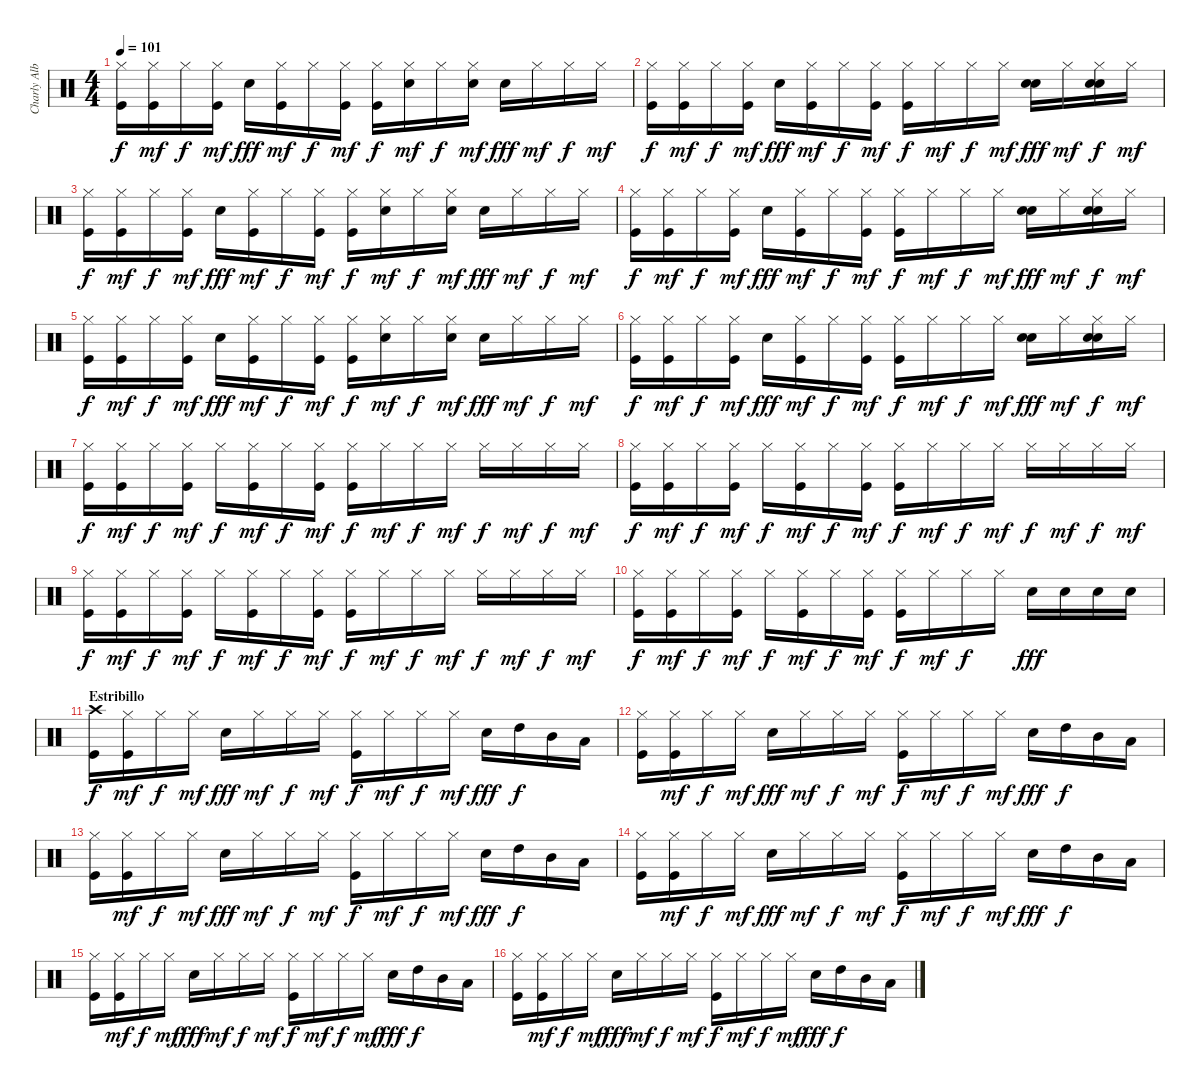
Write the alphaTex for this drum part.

\track ("Charly Alberti" "Charly Alb") {instrument percussion}
\staff {score}
\articulation defaults
\ts (4 4)
\tempo 101
\clef neutral
\ks c
("Kick (hit)" "Hi-Hat (closed)").16{dy f} ("Kick (hit)" "Hi-Hat (closed)").16{dy mf} "Hi-Hat (closed)".16{dy f} ("Kick (hit)" "Hi-Hat (closed)").16{dy mf} "Snare (hit) 2".16{dy fff} ("Kick (hit)" "Hi-Hat (closed)").16{dy mf} "Hi-Hat (closed)".16{dy f} ("Kick (hit)" "Hi-Hat (closed)").16{dy mf} ("Kick (hit)" "Hi-Hat (closed)").16{dy f} ("Hand Clap (hit)" "Hi-Hat (closed)").16{dy mf} "Hi-Hat (closed)".16{dy f} ("Hand Clap (hit)" "Hi-Hat (closed)").16{dy mf} "Snare (hit) 2".16{dy fff} "Hi-Hat (closed)".16{dy mf} "Hi-Hat (closed)".16{dy f} "Hi-Hat (closed)".16{dy mf} |
("Kick (hit)" "Hi-Hat (closed)").16{dy f} ("Kick (hit)" "Hi-Hat (closed)").16{dy mf} "Hi-Hat (closed)".16{dy f} ("Kick (hit)" "Hi-Hat (closed)").16{dy mf} "Snare (hit) 2".16{dy fff} ("Kick (hit)" "Hi-Hat (closed)").16{dy mf} "Hi-Hat (closed)".16{dy f} ("Kick (hit)" "Hi-Hat (closed)").16{dy mf} ("Kick (hit)" "Hi-Hat (closed)").16{dy f} "Hi-Hat (closed)".16{dy mf} "Hi-Hat (closed)".16{dy f} "Hi-Hat (closed)".16{dy mf} ("Snare (hit) 2" "Hand Clap (hit)").16{dy fff} "Hi-Hat (closed)".16{dy mf} ("Snare (hit) 2" "Hand Clap (hit)" "Hi-Hat (closed)").16{dy f} "Hi-Hat (closed)".16{dy mf} |
("Kick (hit)" "Hi-Hat (closed)").16{dy f} ("Kick (hit)" "Hi-Hat (closed)").16{dy mf} "Hi-Hat (closed)".16{dy f} ("Kick (hit)" "Hi-Hat (closed)").16{dy mf} "Snare (hit) 2".16{dy fff} ("Kick (hit)" "Hi-Hat (closed)").16{dy mf} "Hi-Hat (closed)".16{dy f} ("Kick (hit)" "Hi-Hat (closed)").16{dy mf} ("Kick (hit)" "Hi-Hat (closed)").16{dy f} ("Hand Clap (hit)" "Hi-Hat (closed)").16{dy mf} "Hi-Hat (closed)".16{dy f} ("Hand Clap (hit)" "Hi-Hat (closed)").16{dy mf} "Snare (hit) 2".16{dy fff} "Hi-Hat (closed)".16{dy mf} "Hi-Hat (closed)".16{dy f} "Hi-Hat (closed)".16{dy mf} |
("Kick (hit)" "Hi-Hat (closed)").16{dy f} ("Kick (hit)" "Hi-Hat (closed)").16{dy mf} "Hi-Hat (closed)".16{dy f} ("Kick (hit)" "Hi-Hat (closed)").16{dy mf} "Snare (hit) 2".16{dy fff} ("Kick (hit)" "Hi-Hat (closed)").16{dy mf} "Hi-Hat (closed)".16{dy f} ("Kick (hit)" "Hi-Hat (closed)").16{dy mf} ("Kick (hit)" "Hi-Hat (closed)").16{dy f} "Hi-Hat (closed)".16{dy mf} "Hi-Hat (closed)".16{dy f} "Hi-Hat (closed)".16{dy mf} ("Snare (hit) 2" "Hand Clap (hit)").16{dy fff} "Hi-Hat (closed)".16{dy mf} ("Snare (hit) 2" "Hand Clap (hit)" "Hi-Hat (closed)").16{dy f} "Hi-Hat (closed)".16{dy mf} |
("Kick (hit)" "Hi-Hat (closed)").16{dy f} ("Kick (hit)" "Hi-Hat (closed)").16{dy mf} "Hi-Hat (closed)".16{dy f} ("Kick (hit)" "Hi-Hat (closed)").16{dy mf} "Snare (hit) 2".16{dy fff} ("Kick (hit)" "Hi-Hat (closed)").16{dy mf} "Hi-Hat (closed)".16{dy f} ("Kick (hit)" "Hi-Hat (closed)").16{dy mf} ("Kick (hit)" "Hi-Hat (closed)").16{dy f} ("Hand Clap (hit)" "Hi-Hat (closed)").16{dy mf} "Hi-Hat (closed)".16{dy f} ("Hand Clap (hit)" "Hi-Hat (closed)").16{dy mf} "Snare (hit) 2".16{dy fff} "Hi-Hat (closed)".16{dy mf} "Hi-Hat (closed)".16{dy f} "Hi-Hat (closed)".16{dy mf} |
("Kick (hit)" "Hi-Hat (closed)").16{dy f} ("Kick (hit)" "Hi-Hat (closed)").16{dy mf} "Hi-Hat (closed)".16{dy f} ("Kick (hit)" "Hi-Hat (closed)").16{dy mf} "Snare (hit) 2".16{dy fff} ("Kick (hit)" "Hi-Hat (closed)").16{dy mf} "Hi-Hat (closed)".16{dy f} ("Kick (hit)" "Hi-Hat (closed)").16{dy mf} ("Kick (hit)" "Hi-Hat (closed)").16{dy f} "Hi-Hat (closed)".16{dy mf} "Hi-Hat (closed)".16{dy f} "Hi-Hat (closed)".16{dy mf} ("Snare (hit) 2" "Hand Clap (hit)").16{dy fff} "Hi-Hat (closed)".16{dy mf} ("Snare (hit) 2" "Hand Clap (hit)" "Hi-Hat (closed)").16{dy f} "Hi-Hat (closed)".16{dy mf} |
("Kick (hit)" "Hi-Hat (closed)").16{dy f} ("Kick (hit)" "Hi-Hat (closed)").16{dy mf} "Hi-Hat (closed)".16{dy f} ("Kick (hit)" "Hi-Hat (closed)").16{dy mf} "Hi-Hat (closed)".16{dy f} ("Kick (hit)" "Hi-Hat (closed)").16{dy mf} "Hi-Hat (closed)".16{dy f} ("Kick (hit)" "Hi-Hat (closed)").16{dy mf} ("Kick (hit)" "Hi-Hat (closed)").16{dy f} "Hi-Hat (closed)".16{dy mf} "Hi-Hat (closed)".16{dy f} "Hi-Hat (closed)".16{dy mf} "Hi-Hat (closed)".16{dy f} "Hi-Hat (closed)".16{dy mf} "Hi-Hat (closed)".16{dy f} "Hi-Hat (closed)".16{dy mf} |
("Kick (hit)" "Hi-Hat (closed)").16{dy f} ("Kick (hit)" "Hi-Hat (closed)").16{dy mf} "Hi-Hat (closed)".16{dy f} ("Kick (hit)" "Hi-Hat (closed)").16{dy mf} "Hi-Hat (closed)".16{dy f} ("Kick (hit)" "Hi-Hat (closed)").16{dy mf} "Hi-Hat (closed)".16{dy f} ("Kick (hit)" "Hi-Hat (closed)").16{dy mf} ("Kick (hit)" "Hi-Hat (closed)").16{dy f} "Hi-Hat (closed)".16{dy mf} "Hi-Hat (closed)".16{dy f} "Hi-Hat (closed)".16{dy mf} "Hi-Hat (closed)".16{dy f} "Hi-Hat (closed)".16{dy mf} "Hi-Hat (closed)".16{dy f} "Hi-Hat (closed)".16{dy mf} |
("Kick (hit)" "Hi-Hat (closed)").16{dy f} ("Kick (hit)" "Hi-Hat (closed)").16{dy mf} "Hi-Hat (closed)".16{dy f} ("Kick (hit)" "Hi-Hat (closed)").16{dy mf} "Hi-Hat (closed)".16{dy f} ("Kick (hit)" "Hi-Hat (closed)").16{dy mf} "Hi-Hat (closed)".16{dy f} ("Kick (hit)" "Hi-Hat (closed)").16{dy mf} ("Kick (hit)" "Hi-Hat (closed)").16{dy f} "Hi-Hat (closed)".16{dy mf} "Hi-Hat (closed)".16{dy f} "Hi-Hat (closed)".16{dy mf} "Hi-Hat (closed)".16{dy f} "Hi-Hat (closed)".16{dy mf} "Hi-Hat (closed)".16{dy f} "Hi-Hat (closed)".16{dy mf} |
("Kick (hit)" "Hi-Hat (closed)").16{dy f} ("Kick (hit)" "Hi-Hat (closed)").16{dy mf} "Hi-Hat (closed)".16{dy f} ("Kick (hit)" "Hi-Hat (closed)").16{dy mf} "Hi-Hat (closed)".16{dy f} ("Kick (hit)" "Hi-Hat (closed)").16{dy mf} "Hi-Hat (closed)".16{dy f} ("Kick (hit)" "Hi-Hat (closed)").16{dy mf} ("Kick (hit)" "Hi-Hat (closed)").16{dy f} "Hi-Hat (closed)".16{dy mf} "Hi-Hat (closed)".16{dy f} "Hi-Hat (closed)".16 "Snare (hit) 2".16{dy fff} "Snare (hit) 2".16 "Snare (hit) 2".16 "Snare (hit) 2".16 |
\section ("" "Estribillo")
("Kick (hit)" "Crash high (hit)").16{dy f} ("Kick (hit)" "Hi-Hat (closed)").16{dy mf} "Hi-Hat (closed)".16{dy f} "Hi-Hat (closed)".16{dy mf} "Snare (hit) 2".16{dy fff} "Hi-Hat (closed)".16{dy mf} "Hi-Hat (closed)".16{dy f} "Hi-Hat (closed)".16{dy mf} ("Kick (hit)" "Hi-Hat (closed)").16{dy f} "Hi-Hat (closed)".16{dy mf} "Hi-Hat (closed)".16{dy f} "Hi-Hat (closed)".16{dy mf} "Snare (hit) 2".16{dy fff} "High Tom (hit)".16{dy f} "Mid Tom (hit)".16 "Low Tom (hit)".16 |
("Kick (hit)" "Hi-Hat (closed)").16 ("Kick (hit)" "Hi-Hat (closed)").16{dy mf} "Hi-Hat (closed)".16{dy f} "Hi-Hat (closed)".16{dy mf} "Snare (hit) 2".16{dy fff} "Hi-Hat (closed)".16{dy mf} "Hi-Hat (closed)".16{dy f} "Hi-Hat (closed)".16{dy mf} ("Kick (hit)" "Hi-Hat (closed)").16{dy f} "Hi-Hat (closed)".16{dy mf} "Hi-Hat (closed)".16{dy f} "Hi-Hat (closed)".16{dy mf} "Snare (hit) 2".16{dy fff} "High Tom (hit)".16{dy f} "Mid Tom (hit)".16 "Low Tom (hit)".16 |
("Kick (hit)" "Hi-Hat (closed)").16 ("Kick (hit)" "Hi-Hat (closed)").16{dy mf} "Hi-Hat (closed)".16{dy f} "Hi-Hat (closed)".16{dy mf} "Snare (hit) 2".16{dy fff} "Hi-Hat (closed)".16{dy mf} "Hi-Hat (closed)".16{dy f} "Hi-Hat (closed)".16{dy mf} ("Kick (hit)" "Hi-Hat (closed)").16{dy f} "Hi-Hat (closed)".16{dy mf} "Hi-Hat (closed)".16{dy f} "Hi-Hat (closed)".16{dy mf} "Snare (hit) 2".16{dy fff} "High Tom (hit)".16{dy f} "Mid Tom (hit)".16 "Low Tom (hit)".16 |
("Kick (hit)" "Hi-Hat (closed)").16 ("Kick (hit)" "Hi-Hat (closed)").16{dy mf} "Hi-Hat (closed)".16{dy f} "Hi-Hat (closed)".16{dy mf} "Snare (hit) 2".16{dy fff} "Hi-Hat (closed)".16{dy mf} "Hi-Hat (closed)".16{dy f} "Hi-Hat (closed)".16{dy mf} ("Kick (hit)" "Hi-Hat (closed)").16{dy f} "Hi-Hat (closed)".16{dy mf} "Hi-Hat (closed)".16{dy f} "Hi-Hat (closed)".16{dy mf} "Snare (hit) 2".16{dy fff} "High Tom (hit)".16{dy f} "Mid Tom (hit)".16 "Low Tom (hit)".16 |
("Kick (hit)" "Hi-Hat (closed)").16 ("Kick (hit)" "Hi-Hat (closed)").16{dy mf} "Hi-Hat (closed)".16{dy f} "Hi-Hat (closed)".16{dy mf} "Snare (hit) 2".16{dy fff} "Hi-Hat (closed)".16{dy mf} "Hi-Hat (closed)".16{dy f} "Hi-Hat (closed)".16{dy mf} ("Kick (hit)" "Hi-Hat (closed)").16{dy f} "Hi-Hat (closed)".16{dy mf} "Hi-Hat (closed)".16{dy f} "Hi-Hat (closed)".16{dy mf} "Snare (hit) 2".16{dy fff} "High Tom (hit)".16{dy f} "Mid Tom (hit)".16 "Low Tom (hit)".16 |
("Kick (hit)" "Hi-Hat (closed)").16 ("Kick (hit)" "Hi-Hat (closed)").16{dy mf} "Hi-Hat (closed)".16{dy f} "Hi-Hat (closed)".16{dy mf} "Snare (hit) 2".16{dy fff} "Hi-Hat (closed)".16{dy mf} "Hi-Hat (closed)".16{dy f} "Hi-Hat (closed)".16{dy mf} ("Kick (hit)" "Hi-Hat (closed)").16{dy f} "Hi-Hat (closed)".16{dy mf} "Hi-Hat (closed)".16{dy f} "Hi-Hat (closed)".16{dy mf} "Snare (hit) 2".16{dy fff} "High Tom (hit)".16{dy f} "Mid Tom (hit)".16 "Low Tom (hit)".16
